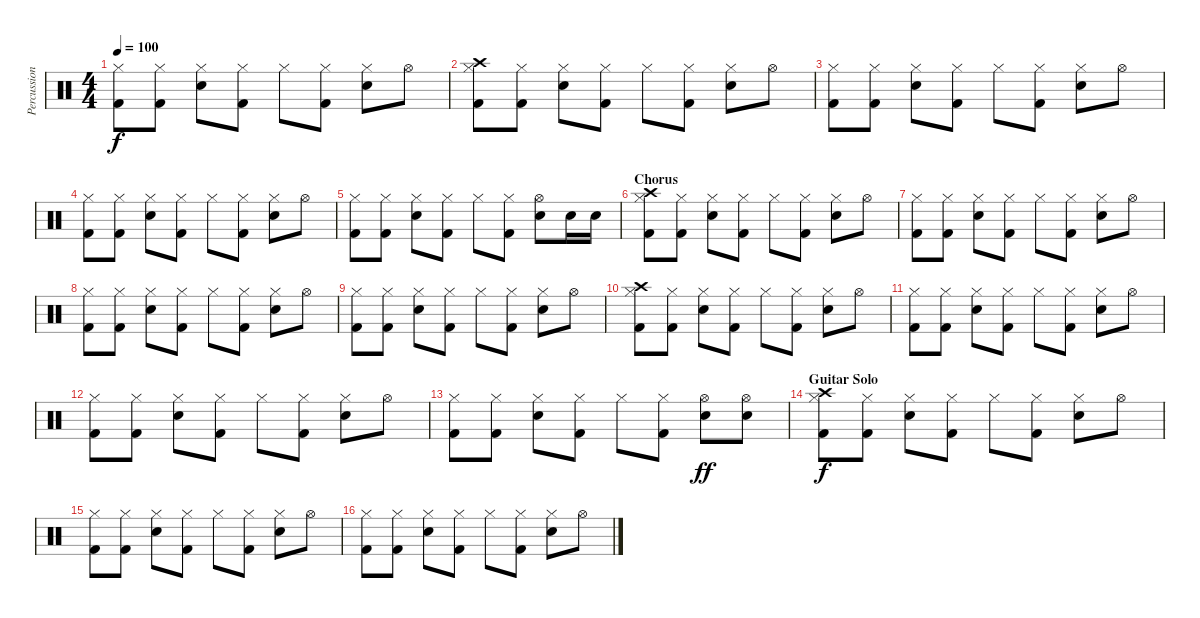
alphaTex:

\track ("Percussion" "Percussion") {instrument percussion}
\staff {score}
\articulation defaults
\ts (4 4)
\tempo 100
\clef neutral
\ks c
("Hi-Hat (closed)" "Kick (hit) 2").8{dy f} ("Hi-Hat (closed)" "Kick (hit) 2").8 ("Hi-Hat (closed)" "Electric Snare (hit)").8 ("Hi-Hat (closed)" "Kick (hit) 2").8 "Hi-Hat (closed)".8 ("Hi-Hat (closed)" "Kick (hit) 2").8 ("Hi-Hat (closed)" "Electric Snare (hit)").8 "Hi-Hat (open)".8 |
("Crash high (hit)" "Hi-Hat (closed)" "Kick (hit) 2").8 ("Hi-Hat (closed)" "Kick (hit) 2").8 ("Hi-Hat (closed)" "Electric Snare (hit)").8 ("Hi-Hat (closed)" "Kick (hit) 2").8 "Hi-Hat (closed)".8 ("Hi-Hat (closed)" "Kick (hit) 2").8 ("Hi-Hat (closed)" "Electric Snare (hit)").8 "Hi-Hat (open)".8 |
("Hi-Hat (closed)" "Kick (hit) 2").8 ("Hi-Hat (closed)" "Kick (hit) 2").8 ("Hi-Hat (closed)" "Electric Snare (hit)").8 ("Hi-Hat (closed)" "Kick (hit) 2").8 "Hi-Hat (closed)".8 ("Hi-Hat (closed)" "Kick (hit) 2").8 ("Hi-Hat (closed)" "Electric Snare (hit)").8 "Hi-Hat (open)".8 |
("Hi-Hat (closed)" "Kick (hit) 2").8 ("Hi-Hat (closed)" "Kick (hit) 2").8 ("Hi-Hat (closed)" "Electric Snare (hit)").8 ("Hi-Hat (closed)" "Kick (hit) 2").8 "Hi-Hat (closed)".8 ("Hi-Hat (closed)" "Kick (hit) 2").8 ("Hi-Hat (closed)" "Electric Snare (hit)").8 "Hi-Hat (open)".8 |
("Hi-Hat (closed)" "Kick (hit) 2").8 ("Hi-Hat (closed)" "Kick (hit) 2").8 ("Hi-Hat (closed)" "Electric Snare (hit)").8 ("Hi-Hat (closed)" "Kick (hit) 2").8 "Hi-Hat (closed)".8 ("Hi-Hat (closed)" "Kick (hit) 2").8 ("Hi-Hat (open)" "Electric Snare (hit)").8 "Electric Snare (hit)".16 "Electric Snare (hit)".16 |
\section ("" "Chorus")
("Crash high (hit)" "Hi-Hat (closed)" "Kick (hit) 2").8 ("Hi-Hat (closed)" "Kick (hit) 2").8 ("Hi-Hat (closed)" "Electric Snare (hit)").8 ("Hi-Hat (closed)" "Kick (hit) 2").8 "Hi-Hat (closed)".8 ("Hi-Hat (closed)" "Kick (hit) 2").8 ("Hi-Hat (closed)" "Electric Snare (hit)").8 "Hi-Hat (open)".8 |
("Hi-Hat (closed)" "Kick (hit) 2").8 ("Hi-Hat (closed)" "Kick (hit) 2").8 ("Hi-Hat (closed)" "Electric Snare (hit)").8 ("Hi-Hat (closed)" "Kick (hit) 2").8 "Hi-Hat (closed)".8 ("Hi-Hat (closed)" "Kick (hit) 2").8 ("Hi-Hat (closed)" "Electric Snare (hit)").8 "Hi-Hat (open)".8 |
("Hi-Hat (closed)" "Kick (hit) 2").8 ("Hi-Hat (closed)" "Kick (hit) 2").8 ("Hi-Hat (closed)" "Electric Snare (hit)").8 ("Hi-Hat (closed)" "Kick (hit) 2").8 "Hi-Hat (closed)".8 ("Hi-Hat (closed)" "Kick (hit) 2").8 ("Hi-Hat (closed)" "Electric Snare (hit)").8 "Hi-Hat (open)".8 |
("Hi-Hat (closed)" "Kick (hit) 2").8 ("Hi-Hat (closed)" "Kick (hit) 2").8 ("Hi-Hat (closed)" "Electric Snare (hit)").8 ("Hi-Hat (closed)" "Kick (hit) 2").8 "Hi-Hat (closed)".8 ("Hi-Hat (closed)" "Kick (hit) 2").8 ("Hi-Hat (closed)" "Electric Snare (hit)").8 "Hi-Hat (open)".8 |
("Crash high (hit)" "Hi-Hat (closed)" "Kick (hit) 2").8 ("Hi-Hat (closed)" "Kick (hit) 2").8 ("Hi-Hat (closed)" "Electric Snare (hit)").8 ("Hi-Hat (closed)" "Kick (hit) 2").8 "Hi-Hat (closed)".8 ("Hi-Hat (closed)" "Kick (hit) 2").8 ("Hi-Hat (closed)" "Electric Snare (hit)").8 "Hi-Hat (open)".8 |
("Hi-Hat (closed)" "Kick (hit) 2").8 ("Hi-Hat (closed)" "Kick (hit) 2").8 ("Hi-Hat (closed)" "Electric Snare (hit)").8 ("Hi-Hat (closed)" "Kick (hit) 2").8 "Hi-Hat (closed)".8 ("Hi-Hat (closed)" "Kick (hit) 2").8 ("Hi-Hat (closed)" "Electric Snare (hit)").8 "Hi-Hat (open)".8 |
("Hi-Hat (closed)" "Kick (hit) 2").8 ("Hi-Hat (closed)" "Kick (hit) 2").8 ("Hi-Hat (closed)" "Electric Snare (hit)").8 ("Hi-Hat (closed)" "Kick (hit) 2").8 "Hi-Hat (closed)".8 ("Hi-Hat (closed)" "Kick (hit) 2").8 ("Hi-Hat (closed)" "Electric Snare (hit)").8 "Hi-Hat (open)".8 |
("Hi-Hat (closed)" "Kick (hit) 2").8 ("Hi-Hat (closed)" "Kick (hit) 2").8 ("Hi-Hat (closed)" "Electric Snare (hit)").8 ("Hi-Hat (closed)" "Kick (hit) 2").8 "Hi-Hat (closed)".8 ("Hi-Hat (closed)" "Kick (hit) 2").8 ("Hi-Hat (open)" "Electric Snare (hit)").8{dy ff} ("Hi-Hat (open)" "Electric Snare (hit)").8 |
\section ("" "Guitar Solo")
("Crash high (hit)" "Hi-Hat (closed)" "Kick (hit) 2").8{dy f} ("Hi-Hat (closed)" "Kick (hit) 2").8 ("Hi-Hat (closed)" "Electric Snare (hit)").8 ("Hi-Hat (closed)" "Kick (hit) 2").8 "Hi-Hat (closed)".8 ("Hi-Hat (closed)" "Kick (hit) 2").8 ("Hi-Hat (closed)" "Electric Snare (hit)").8 "Hi-Hat (open)".8 |
("Hi-Hat (closed)" "Kick (hit) 2").8 ("Hi-Hat (closed)" "Kick (hit) 2").8 ("Hi-Hat (closed)" "Electric Snare (hit)").8 ("Hi-Hat (closed)" "Kick (hit) 2").8 "Hi-Hat (closed)".8 ("Hi-Hat (closed)" "Kick (hit) 2").8 ("Hi-Hat (closed)" "Electric Snare (hit)").8 "Hi-Hat (open)".8 |
("Hi-Hat (closed)" "Kick (hit) 2").8 ("Hi-Hat (closed)" "Kick (hit) 2").8 ("Hi-Hat (closed)" "Electric Snare (hit)").8 ("Hi-Hat (closed)" "Kick (hit) 2").8 "Hi-Hat (closed)".8 ("Hi-Hat (closed)" "Kick (hit) 2").8 ("Hi-Hat (closed)" "Electric Snare (hit)").8 "Hi-Hat (open)".8
